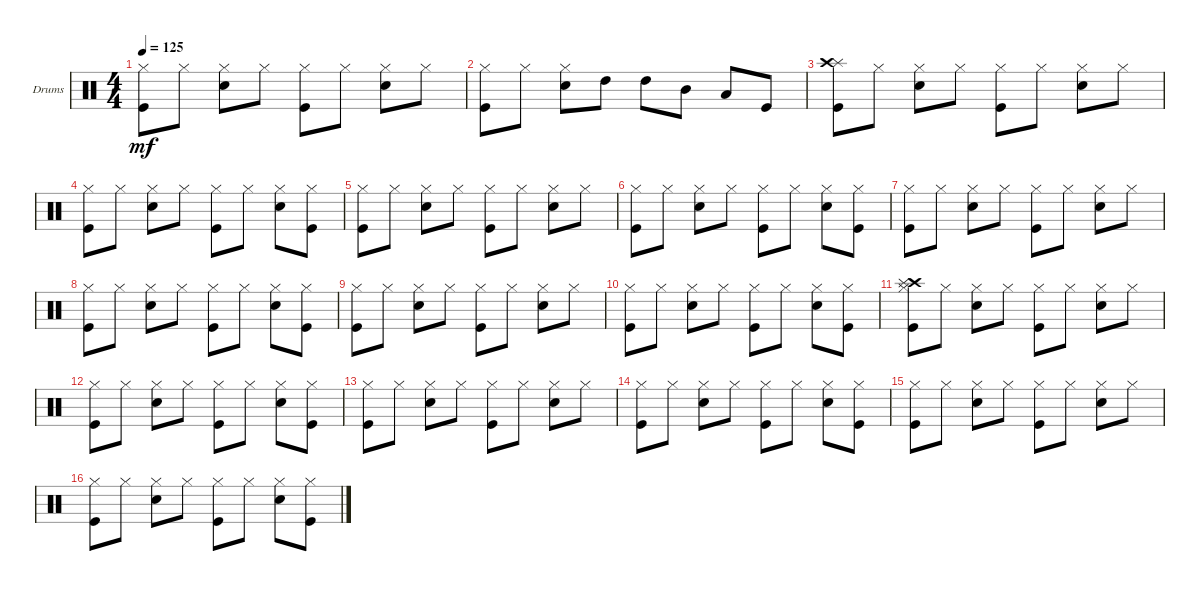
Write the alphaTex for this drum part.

\defaultSystemsLayout 4
\bracketExtendMode groupsimilarinstruments
\firstSystemTrackNameOrientation horizontal
\otherSystemsTrackNameOrientation horizontal
\track ("Drumkit" "Drums") {instrument percussion}
\staff {score}
\articulation defaults
\ts (4 4)
\tempo 125
\clef neutral
\scale
0.472222
\ks c
("Kick (hit)" "Hi-Hat (closed)").8{dy mf} "Hi-Hat (closed)".8 ("Hi-Hat (closed)" "Snare (hit) 2").8 "Hi-Hat (closed)".8 ("Kick (hit)" "Hi-Hat (closed)").8 "Hi-Hat (closed)".8 ("Hi-Hat (closed)" "Snare (hit) 2").8 "Hi-Hat (closed)".8 |
\scale
0.263889 ("Kick (hit)" "Hi-Hat (closed)").8 "Hi-Hat (closed)".8 ("Hi-Hat (closed)" "Snare (hit) 2").8 "High Tom (hit)".8 "High Tom (hit)".8 "Mid Tom (hit)".8 "Low Tom (hit)".8 "Kick (hit)".8 |
\scale
0.263889 ("Kick (hit)" "Splash (hit)" "Crash high (hit)").8 "Hi-Hat (closed)".8 ("Snare (hit) 2" "Hi-Hat (closed)").8 "Hi-Hat (closed)".8 ("Kick (hit)" "Hi-Hat (closed)").8 "Hi-Hat (closed)".8 ("Hi-Hat (closed)" "Snare (hit) 2").8 "Hi-Hat (closed)".8 |
\scale
0.333333 ("Kick (hit)" "Hi-Hat (closed)").8 "Hi-Hat (closed)".8 ("Hi-Hat (closed)" "Snare (hit) 2").8 "Hi-Hat (closed)".8 ("Kick (hit)" "Hi-Hat (closed)").8 "Hi-Hat (closed)".8 ("Hi-Hat (closed)" "Snare (hit) 2").8 ("Hi-Hat (closed)" "Kick (hit)").8 |
\scale
0.333333 ("Kick (hit)" "Hi-Hat (closed)").8 "Hi-Hat (closed)".8 ("Hi-Hat (closed)" "Snare (hit) 2").8 "Hi-Hat (closed)".8 ("Kick (hit)" "Hi-Hat (closed)").8 "Hi-Hat (closed)".8 ("Hi-Hat (closed)" "Snare (hit) 2").8 "Hi-Hat (closed)".8 |
\scale
0.333333 ("Kick (hit)" "Hi-Hat (closed)").8 "Hi-Hat (closed)".8 ("Hi-Hat (closed)" "Snare (hit) 2").8 "Hi-Hat (closed)".8 ("Kick (hit)" "Hi-Hat (closed)").8 "Hi-Hat (closed)".8 ("Hi-Hat (closed)" "Snare (hit) 2").8 ("Hi-Hat (closed)" "Kick (hit)").8 |
\scale
0.333333 ("Kick (hit)" "Hi-Hat (closed)").8 "Hi-Hat (closed)".8 ("Hi-Hat (closed)" "Snare (hit) 2").8 "Hi-Hat (closed)".8 ("Kick (hit)" "Hi-Hat (closed)").8 "Hi-Hat (closed)".8 ("Hi-Hat (closed)" "Snare (hit) 2").8 "Hi-Hat (closed)".8 |
\scale
0.333333 ("Kick (hit)" "Hi-Hat (closed)").8 "Hi-Hat (closed)".8 ("Hi-Hat (closed)" "Snare (hit) 2").8 "Hi-Hat (closed)".8 ("Kick (hit)" "Hi-Hat (closed)").8 "Hi-Hat (closed)".8 ("Hi-Hat (closed)" "Snare (hit) 2").8 ("Hi-Hat (closed)" "Kick (hit)").8 |
\scale
0.333333 ("Kick (hit)" "Hi-Hat (closed)").8 "Hi-Hat (closed)".8 ("Hi-Hat (closed)" "Snare (hit) 2").8 "Hi-Hat (closed)".8 ("Kick (hit)" "Hi-Hat (closed)").8 "Hi-Hat (closed)".8 ("Hi-Hat (closed)" "Snare (hit) 2").8 "Hi-Hat (closed)".8 |
\scale
0.333333 ("Kick (hit)" "Hi-Hat (closed)").8 "Hi-Hat (closed)".8 ("Hi-Hat (closed)" "Snare (hit) 2").8 "Hi-Hat (closed)".8 ("Kick (hit)" "Hi-Hat (closed)").8 "Hi-Hat (closed)".8 ("Hi-Hat (closed)" "Snare (hit) 2").8 ("Hi-Hat (closed)" "Kick (hit)").8 |
\scale
0.333333 ("Kick (hit)" "Hi-Hat (closed)" "Crash high (hit)" "Splash (hit)").8 "Hi-Hat (closed)".8 ("Hi-Hat (closed)" "Snare (hit) 2").8 "Hi-Hat (closed)".8 ("Kick (hit)" "Hi-Hat (closed)").8 "Hi-Hat (closed)".8 ("Hi-Hat (closed)" "Snare (hit) 2").8 "Hi-Hat (closed)".8 |
\scale
0.333333 ("Kick (hit)" "Hi-Hat (closed)").8 "Hi-Hat (closed)".8 ("Hi-Hat (closed)" "Snare (hit) 2").8 "Hi-Hat (closed)".8 ("Kick (hit)" "Hi-Hat (closed)").8 "Hi-Hat (closed)".8 ("Hi-Hat (closed)" "Snare (hit) 2").8 ("Hi-Hat (closed)" "Kick (hit)").8 |
\scale
0.333333 ("Kick (hit)" "Hi-Hat (closed)").8 "Hi-Hat (closed)".8 ("Hi-Hat (closed)" "Snare (hit) 2").8 "Hi-Hat (closed)".8 ("Kick (hit)" "Hi-Hat (closed)").8 "Hi-Hat (closed)".8 ("Hi-Hat (closed)" "Snare (hit) 2").8 "Hi-Hat (closed)".8 |
\scale
0.333333 ("Kick (hit)" "Hi-Hat (closed)").8 "Hi-Hat (closed)".8 ("Hi-Hat (closed)" "Snare (hit) 2").8 "Hi-Hat (closed)".8 ("Kick (hit)" "Hi-Hat (closed)").8 "Hi-Hat (closed)".8 ("Hi-Hat (closed)" "Snare (hit) 2").8 ("Hi-Hat (closed)" "Kick (hit)").8 |
\scale
0.333333 ("Kick (hit)" "Hi-Hat (closed)").8 "Hi-Hat (closed)".8 ("Hi-Hat (closed)" "Snare (hit) 2").8 "Hi-Hat (closed)".8 ("Kick (hit)" "Hi-Hat (closed)").8 "Hi-Hat (closed)".8 ("Hi-Hat (closed)" "Snare (hit) 2").8 "Hi-Hat (closed)".8 |
\scale
0.333333 ("Kick (hit)" "Hi-Hat (closed)").8 "Hi-Hat (closed)".8 ("Hi-Hat (closed)" "Snare (hit) 2").8 "Hi-Hat (closed)".8 ("Kick (hit)" "Hi-Hat (closed)").8 "Hi-Hat (closed)".8 ("Hi-Hat (closed)" "Snare (hit) 2").8 ("Hi-Hat (closed)" "Kick (hit)").8
